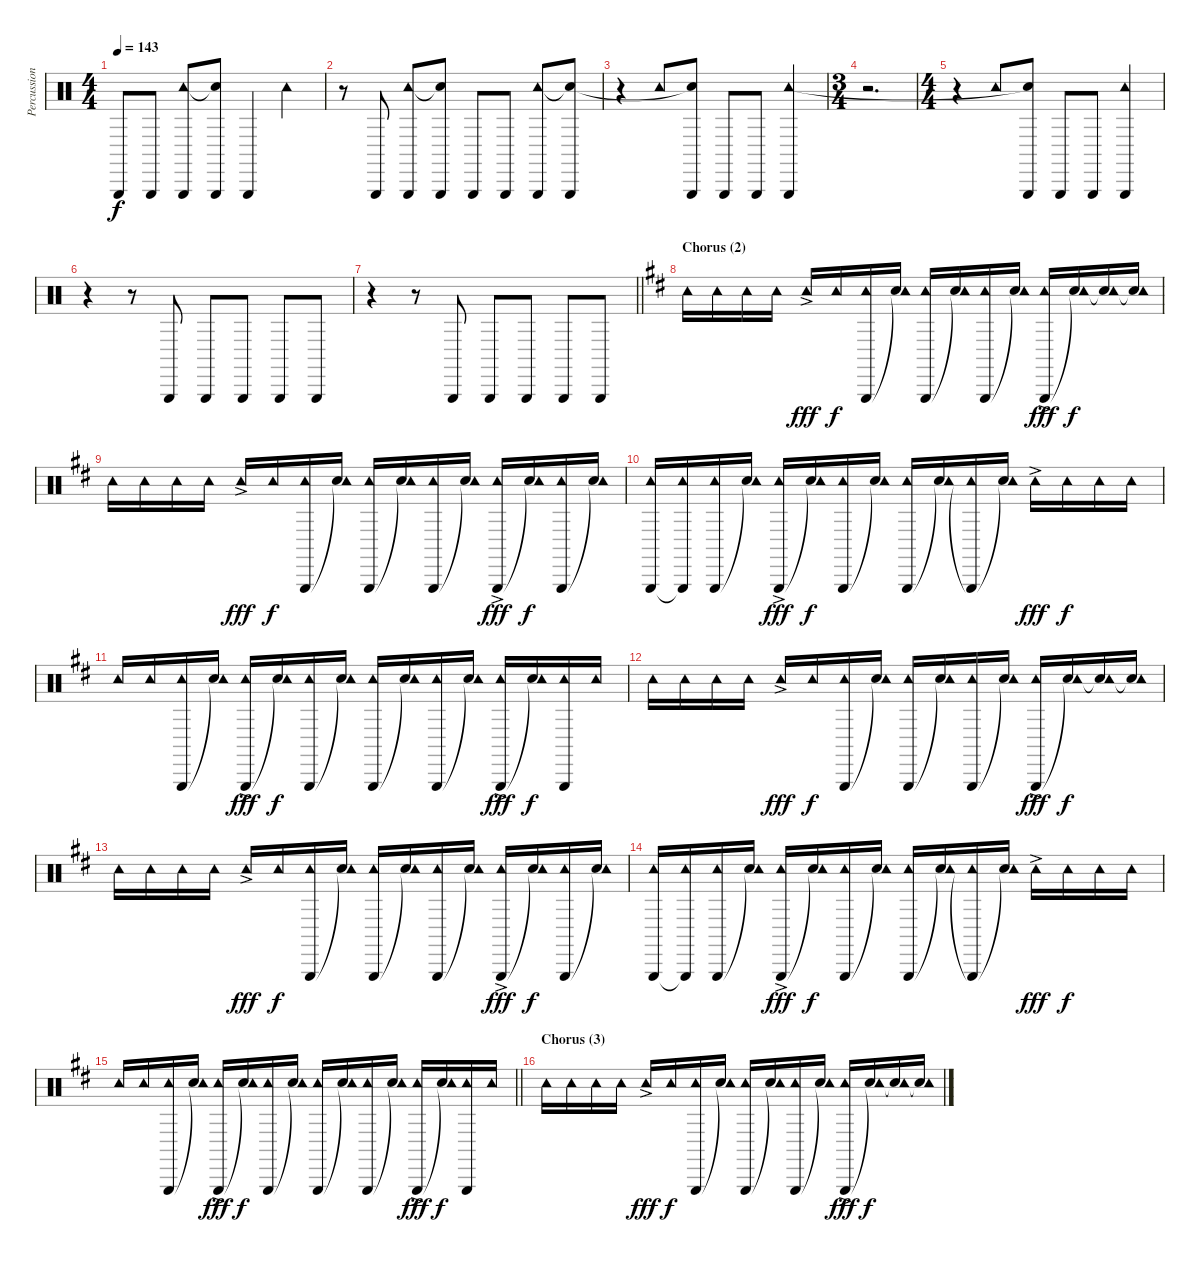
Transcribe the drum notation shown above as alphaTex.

\track ("Percussion" "Percussion") {instrument percussion}
\staff {score}
\articulation defaults
\ts (4 4)
\tempo 143
\clef neutral
\ks aminor "Triangle (hit)".8{dy f} "Triangle (hit)".8
("Triangle (hit)" "Tambourine (hit)").8 ("Triangle (hit)" "Snare (hit)"{t}).8 "Triangle (hit)".4 "Tambourine (hit)".4 |
r.8 "Triangle (hit)".8 ("Triangle (hit)" "Tambourine (hit)").8 ("Triangle (hit)" "Snare (hit)"{t}).8 "Triangle (hit)".8 "Triangle (hit)".8 ("Triangle (hit)" "Tambourine (hit)").8 ("Triangle (hit)" "Snare (hit)"{t}).8 |
r.4 "Tambourine (hit)".8 ("Triangle (hit)" "Snare (hit)"{t}).8 "Triangle (hit)".8 "Triangle (hit)".8 ("Triangle (hit)" "Tambourine (hit)").4 |
\ts (3 4)
r.2{d} |
\ts (4 4)
r.4 "Tambourine (hit)".8 ("Triangle (hit)" "Snare (hit)"{t}).8 "Triangle (hit)".8 "Triangle (hit)".8 ("Triangle (hit)" "Tambourine (hit)").4 |
r.4 r.8 "Triangle (hit)".8 "Triangle (hit)".8 "Triangle (hit)".8 "Triangle (hit)".8 "Triangle (hit)".8 |
\barLineRight lightlight
r.4 r.8 "Triangle (hit)".8 "Triangle (hit)".8 "Triangle (hit)".8 "Triangle (hit)".8 "Triangle (hit)".8 |
\section ("" "Chorus (2)")
\ks d "Tambourine (hit)".16 "Tambourine (hit)".16 "Tambourine (hit)".16 "Tambourine (hit)".16 "Tambourine (hit)"{ac}.16{dy fff} "Tambourine (hit)".16{dy f}
("Triangle (hit)" "Tambourine (hit)").16 ("Snare (hit)"{t} "Tambourine (hit)").16 ("Triangle (hit)" "Tambourine (hit)").16 ("Snare (hit)"{t} "Tambourine (hit)").16 ("Triangle (hit)" "Tambourine (hit)").16 ("Snare (hit)"{t} "Tambourine (hit)").16 ("Triangle (hit)" "Tambourine (hit)"{ac}).16{dy fff} ("Snare (hit)"{t} "Tambourine (hit)").16{dy f} ("Snare (hit)"{t} "Tambourine (hit)").16 ("Snare (hit)"{t} "Tambourine (hit)").16 |
"Tambourine (hit)".16 "Tambourine (hit)".16 "Tambourine (hit)".16 "Tambourine (hit)".16 "Tambourine (hit)"{ac}.16{dy fff} "Tambourine (hit)".16{dy f} ("Triangle (hit)" "Tambourine (hit)").16 ("Snare (hit)"{t} "Tambourine (hit)").16 ("Triangle (hit)" "Tambourine (hit)").16 ("Snare (hit)"{t} "Tambourine (hit)").16 ("Triangle (hit)" "Tambourine (hit)").16 ("Snare (hit)"{t} "Tambourine (hit)").16 ("Triangle (hit)" "Tambourine (hit)"{ac}).16{dy fff} ("Snare (hit)"{t} "Tambourine (hit)").16{dy f} ("Triangle (hit)" "Tambourine (hit)").16 ("Snare (hit)"{t} "Tambourine (hit)").16 |
("Triangle (hit)" "Tambourine (hit)").16 ("Triangle (hit)"{t} "Tambourine (hit)").16 ("Triangle (hit)" "Tambourine (hit)").16 ("Snare (hit)"{t} "Tambourine (hit)").16 ("Triangle (hit)" "Tambourine (hit)"{ac}).16{dy fff} ("Snare (hit)"{t} "Tambourine (hit)").16{dy f} ("Triangle (hit)" "Tambourine (hit)").16 ("Snare (hit)"{t} "Tambourine (hit)").16 ("Triangle (hit)" "Tambourine (hit)").16 ("Snare (hit)"{t} "Tambourine (hit)").16 ("Triangle (hit)"{t} "Tambourine (hit)").16 ("Snare (hit)"{t} "Tambourine (hit)").16 "Tambourine (hit)"{ac}.16{dy fff} "Tambourine (hit)".16{dy f} "Tambourine (hit)".16 "Tambourine (hit)".16 |
"Tambourine (hit)".16 "Tambourine (hit)".16 ("Triangle (hit)" "Tambourine (hit)").16 ("Snare (hit)"{t} "Tambourine (hit)").16 ("Triangle (hit)" "Tambourine (hit)"{ac}).16{dy fff} ("Snare (hit)"{t} "Tambourine (hit)").16{dy f} ("Triangle (hit)" "Tambourine (hit)").16 ("Snare (hit)"{t} "Tambourine (hit)").16 ("Triangle (hit)" "Tambourine (hit)").16 ("Snare (hit)"{t} "Tambourine (hit)").16 ("Triangle (hit)" "Tambourine (hit)").16 ("Snare (hit)"{t} "Tambourine (hit)").16 ("Triangle (hit)" "Tambourine (hit)"{ac}).16{dy fff} ("Snare (hit)"{t} "Tambourine (hit)").16{dy f} ("Triangle (hit)" "Tambourine (hit)").16 "Tambourine (hit)".16 |
"Tambourine (hit)".16 "Tambourine (hit)".16 "Tambourine (hit)".16 "Tambourine (hit)".16 "Tambourine (hit)"{ac}.16{dy fff} "Tambourine (hit)".16{dy f} ("Triangle (hit)" "Tambourine (hit)").16 ("Snare (hit)"{t} "Tambourine (hit)").16 ("Triangle (hit)" "Tambourine (hit)").16 ("Snare (hit)"{t} "Tambourine (hit)").16 ("Triangle (hit)" "Tambourine (hit)").16 ("Snare (hit)"{t} "Tambourine (hit)").16 ("Triangle (hit)" "Tambourine (hit)"{ac}).16{dy fff} ("Snare (hit)"{t} "Tambourine (hit)").16{dy f} ("Snare (hit)"{t} "Tambourine (hit)").16 ("Snare (hit)"{t} "Tambourine (hit)").16 |
"Tambourine (hit)".16 "Tambourine (hit)".16 "Tambourine (hit)".16 "Tambourine (hit)".16 "Tambourine (hit)"{ac}.16{dy fff} "Tambourine (hit)".16{dy f} ("Triangle (hit)" "Tambourine (hit)").16 ("Snare (hit)"{t} "Tambourine (hit)").16 ("Triangle (hit)" "Tambourine (hit)").16 ("Snare (hit)"{t} "Tambourine (hit)").16 ("Triangle (hit)" "Tambourine (hit)").16 ("Snare (hit)"{t} "Tambourine (hit)").16 ("Triangle (hit)" "Tambourine (hit)"{ac}).16{dy fff} ("Snare (hit)"{t} "Tambourine (hit)").16{dy f} ("Triangle (hit)" "Tambourine (hit)").16 ("Snare (hit)"{t} "Tambourine (hit)").16 |
("Triangle (hit)" "Tambourine (hit)").16 ("Triangle (hit)"{t} "Tambourine (hit)").16 ("Triangle (hit)" "Tambourine (hit)").16 ("Snare (hit)"{t} "Tambourine (hit)").16 ("Triangle (hit)" "Tambourine (hit)"{ac}).16{dy fff} ("Snare (hit)"{t} "Tambourine (hit)").16{dy f} ("Triangle (hit)" "Tambourine (hit)").16 ("Snare (hit)"{t} "Tambourine (hit)").16 ("Triangle (hit)" "Tambourine (hit)").16 ("Snare (hit)"{t} "Tambourine (hit)").16 ("Triangle (hit)"{t} "Tambourine (hit)").16 ("Snare (hit)"{t} "Tambourine (hit)").16 "Tambourine (hit)"{ac}.16{dy fff} "Tambourine (hit)".16{dy f} "Tambourine (hit)".16 "Tambourine (hit)".16 |
\barLineRight lightlight "Tambourine (hit)".16 "Tambourine (hit)".16
("Triangle (hit)" "Tambourine (hit)").16 ("Snare (hit)"{t} "Tambourine (hit)").16 ("Triangle (hit)" "Tambourine (hit)"{ac}).16{dy fff} ("Snare (hit)"{t} "Tambourine (hit)").16{dy f} ("Triangle (hit)" "Tambourine (hit)").16 ("Snare (hit)"{t} "Tambourine (hit)").16 ("Triangle (hit)" "Tambourine (hit)").16 ("Snare (hit)"{t} "Tambourine (hit)").16 ("Triangle (hit)" "Tambourine (hit)").16 ("Snare (hit)"{t} "Tambourine (hit)").16 ("Triangle (hit)" "Tambourine (hit)"{ac}).16{dy fff} ("Snare (hit)"{t} "Tambourine (hit)").16{dy f} ("Triangle (hit)" "Tambourine (hit)").16 "Tambourine (hit)".16 |
\section ("" "Chorus (3)")
"Tambourine (hit)".16 "Tambourine (hit)".16 "Tambourine (hit)".16 "Tambourine (hit)".16 "Tambourine (hit)"{ac}.16{dy fff} "Tambourine (hit)".16{dy f} ("Triangle (hit)" "Tambourine (hit)").16 ("Snare (hit)"{t} "Tambourine (hit)").16 ("Triangle (hit)" "Tambourine (hit)").16 ("Snare (hit)"{t} "Tambourine (hit)").16 ("Triangle (hit)" "Tambourine (hit)").16 ("Snare (hit)"{t} "Tambourine (hit)").16 ("Triangle (hit)" "Tambourine (hit)"{ac}).16{dy fff} ("Snare (hit)"{t} "Tambourine (hit)").16{dy f} ("Snare (hit)"{t} "Tambourine (hit)").16 ("Snare (hit)"{t} "Tambourine (hit)").16
